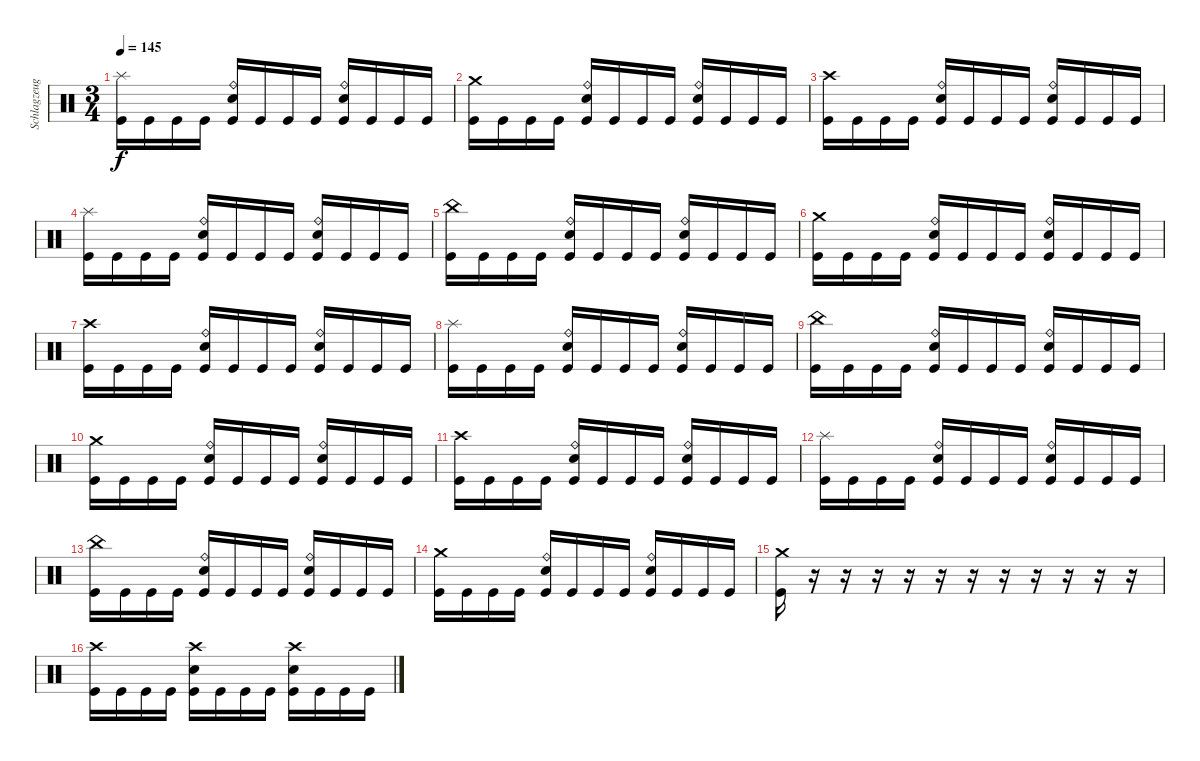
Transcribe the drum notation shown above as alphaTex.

\track ("Schlagzeug" "Schlagzeug") {instrument percussion}
\staff {score}
\articulation defaults
\ts (3 4)
\tempo 145
\clef neutral
\ks c
("Splash (hit)" "Kick (hit)").16{dy f} "Kick (hit)".16 "Kick (hit)".16 "Kick (hit)".16 ("Ride (bell)" "Snare (hit) 2" "Kick (hit)").16 "Kick (hit)".16 "Kick (hit)".16 "Kick (hit)".16 ("Ride (bell)" "Snare (hit) 2" "Kick (hit)").16 "Kick (hit)".16 "Kick (hit)".16 "Kick (hit)".16 |
("Crash medium (hit)" "Kick (hit)").16 "Kick (hit)".16 "Kick (hit)".16 "Kick (hit)".16 ("Ride (bell)" "Snare (hit) 2" "Kick (hit)").16 "Kick (hit)".16 "Kick (hit)".16 "Kick (hit)".16 ("Ride (bell)" "Snare (hit) 2" "Kick (hit)").16 "Kick (hit)".16 "Kick (hit)".16 "Kick (hit)".16 |
("Crash high (hit)" "Kick (hit)").16 "Kick (hit)".16 "Kick (hit)".16 "Kick (hit)".16 ("Ride (bell)" "Snare (hit) 2" "Kick (hit)").16 "Kick (hit)".16 "Kick (hit)".16 "Kick (hit)".16 ("Ride (bell)" "Snare (hit) 2" "Kick (hit)").16 "Kick (hit)".16 "Kick (hit)".16 "Kick (hit)".16 |
("Splash (hit)" "Kick (hit)").16 "Kick (hit)".16 "Kick (hit)".16 "Kick (hit)".16 ("Ride (bell)" "Snare (hit) 2" "Kick (hit)").16 "Kick (hit)".16 "Kick (hit)".16 "Kick (hit)".16 ("Ride (bell)" "Snare (hit) 2" "Kick (hit)").16 "Kick (hit)".16 "Kick (hit)".16 "Kick (hit)".16 |
("China (hit)" "Kick (hit)").16 "Kick (hit)".16 "Kick (hit)".16 "Kick (hit)".16 ("Ride (bell)" "Snare (hit) 2" "Kick (hit)").16 "Kick (hit)".16 "Kick (hit)".16 "Kick (hit)".16 ("Ride (bell)" "Snare (hit) 2" "Kick (hit)").16 "Kick (hit)".16 "Kick (hit)".16 "Kick (hit)".16 |
("Crash medium (hit)" "Kick (hit)").16 "Kick (hit)".16 "Kick (hit)".16 "Kick (hit)".16 ("Ride (bell)" "Snare (hit) 2" "Kick (hit)").16 "Kick (hit)".16 "Kick (hit)".16 "Kick (hit)".16 ("Ride (bell)" "Snare (hit) 2" "Kick (hit)").16 "Kick (hit)".16 "Kick (hit)".16 "Kick (hit)".16 |
("Crash high (hit)" "Kick (hit)").16 "Kick (hit)".16 "Kick (hit)".16 "Kick (hit)".16 ("Ride (bell)" "Snare (hit) 2" "Kick (hit)").16 "Kick (hit)".16 "Kick (hit)".16 "Kick (hit)".16 ("Ride (bell)" "Snare (hit) 2" "Kick (hit)").16 "Kick (hit)".16 "Kick (hit)".16 "Kick (hit)".16 |
("Splash (hit)" "Kick (hit)").16 "Kick (hit)".16 "Kick (hit)".16 "Kick (hit)".16 ("Ride (bell)" "Snare (hit) 2" "Kick (hit)").16 "Kick (hit)".16 "Kick (hit)".16 "Kick (hit)".16 ("Ride (bell)" "Snare (hit) 2" "Kick (hit)").16 "Kick (hit)".16 "Kick (hit)".16 "Kick (hit)".16 |
("China (hit)" "Kick (hit)").16 "Kick (hit)".16 "Kick (hit)".16 "Kick (hit)".16 ("Ride (bell)" "Snare (hit) 2" "Kick (hit)").16 "Kick (hit)".16 "Kick (hit)".16 "Kick (hit)".16 ("Ride (bell)" "Snare (hit) 2" "Kick (hit)").16 "Kick (hit)".16 "Kick (hit)".16 "Kick (hit)".16 |
("Crash medium (hit)" "Kick (hit)").16 "Kick (hit)".16 "Kick (hit)".16 "Kick (hit)".16 ("Ride (bell)" "Snare (hit) 2" "Kick (hit)").16 "Kick (hit)".16 "Kick (hit)".16 "Kick (hit)".16 ("Ride (bell)" "Snare (hit) 2" "Kick (hit)").16 "Kick (hit)".16 "Kick (hit)".16 "Kick (hit)".16 |
("Crash high (hit)" "Kick (hit)").16 "Kick (hit)".16 "Kick (hit)".16 "Kick (hit)".16 ("Ride (bell)" "Snare (hit) 2" "Kick (hit)").16 "Kick (hit)".16 "Kick (hit)".16 "Kick (hit)".16 ("Ride (bell)" "Snare (hit) 2" "Kick (hit)").16 "Kick (hit)".16 "Kick (hit)".16 "Kick (hit)".16 |
("Splash (hit)" "Kick (hit)").16 "Kick (hit)".16 "Kick (hit)".16 "Kick (hit)".16 ("Ride (bell)" "Snare (hit) 2" "Kick (hit)").16 "Kick (hit)".16 "Kick (hit)".16 "Kick (hit)".16 ("Ride (bell)" "Snare (hit) 2" "Kick (hit)").16 "Kick (hit)".16 "Kick (hit)".16 "Kick (hit)".16 |
("China (hit)" "Kick (hit)").16 "Kick (hit)".16 "Kick (hit)".16 "Kick (hit)".16 ("Ride (bell)" "Snare (hit) 2" "Kick (hit)").16 "Kick (hit)".16 "Kick (hit)".16 "Kick (hit)".16 ("Ride (bell)" "Snare (hit) 2" "Kick (hit)").16 "Kick (hit)".16 "Kick (hit)".16 "Kick (hit)".16 |
("Crash medium (hit)" "Kick (hit)").16 "Kick (hit)".16 "Kick (hit)".16 "Kick (hit)".16 ("Ride (bell)" "Snare (hit) 2" "Kick (hit)").16 "Kick (hit)".16 "Kick (hit)".16 "Kick (hit)".16 ("Ride (bell)" "Snare (hit) 2" "Kick (hit)").16 "Kick (hit)".16 "Kick (hit)".16 "Kick (hit)".16 |
("Crash medium (hit)" "Kick (hit)").16 r.16 r.16 r.16 r.16 r.16 r.16 r.16 r.16 r.16 r.16 r.16 |
("Crash high (hit)" "Kick (hit)").16 "Kick (hit)".16 "Kick (hit)".16 "Kick (hit)".16 ("Crash high (hit)" "Snare (hit) 2" "Kick (hit)").16 "Kick (hit)".16 "Kick (hit)".16 "Kick (hit)".16 ("Crash high (hit)" "Snare (hit) 2" "Kick (hit)").16 "Kick (hit)".16 "Kick (hit)".16 "Kick (hit)".16
